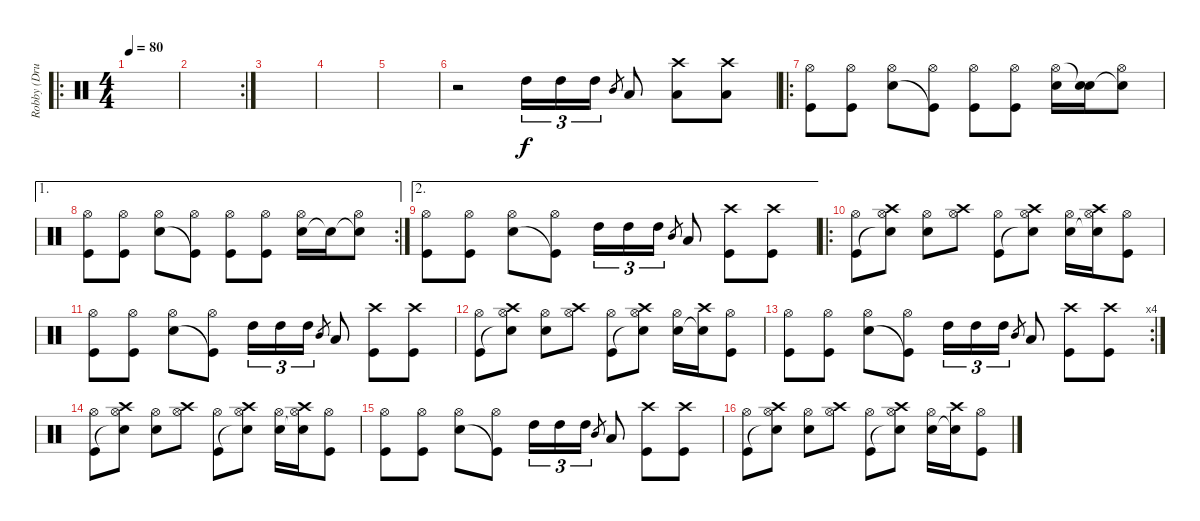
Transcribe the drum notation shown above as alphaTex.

\track ("Robby (Drums)" "Robby (Dru") {instrument percussion}
\staff {score}
\articulation defaults
\ro
\ts (4 4)
\tempo 80
\clef neutral
\ks c
|
\rc 2
|
|
|
|
r.2 "High Tom (hit)".16{tu (3 2)} "High Tom (hit)".16{tu (3 2)} "High Tom (hit)".16{tu (3 2)} "Mid Tom (hit)".8{gr} "Low Tom (hit)".8 ("Crash high (hit)" "Low Tom (hit)").8 ("Crash high (hit)" "Low Tom (hit)").8 |
\ro
("Kick (hit)" "Hi-Hat (open)").8 ("Kick (hit)" "Hi-Hat (open)").8 ("Snare (hit) 2" "Hi-Hat (open)").8 ("Kick (hit)"{t} "Hi-Hat (open)").8 ("Kick (hit)" "Hi-Hat (open)").8 ("Kick (hit)" "Hi-Hat (open)").8 ("Snare (hit) 2" "Hi-Hat (open)").16 ("Snare (hit) 2" "Snare (hit)"{t}).16 ("Snare (hit)"{t} "Hi-Hat (open)").8 |
\ae 1
\rc 2
("Kick (hit)" "Hi-Hat (open)").8 ("Kick (hit)" "Hi-Hat (open)").8 ("Snare (hit) 2" "Hi-Hat (open)").8 ("Kick (hit)"{t} "Hi-Hat (open)").8 ("Kick (hit)" "Hi-Hat (open)").8 ("Kick (hit)" "Hi-Hat (open)").8 ("Snare (hit) 2" "Hi-Hat (open)").16 "Snare (hit)"{t}.16 ("Snare (hit)"{t} "Hi-Hat (open)").8 |
\ae 2
("Kick (hit)" "Hi-Hat (open)").8 ("Kick (hit)" "Hi-Hat (open)").8 ("Snare (hit) 2" "Hi-Hat (open)").8 ("Kick (hit)"{t} "Hi-Hat (open)").8 "High Tom (hit)".16{tu (3 2)} "High Tom (hit)".16{tu (3 2)} "High Tom (hit)".16{tu (3 2)} "Mid Tom (hit)".8{gr} "Low Tom (hit)".8 ("Crash high (hit)" "Kick (hit)").8 ("Crash high (hit)" "Kick (hit)").8 |
\ro
("Kick (hit)" "Hi-Hat (open)").8 ("Snare (hit)"{t} "Hi-Hat (open)" "Crash high (hit)").8 ("Snare (hit) 2" "Hi-Hat (open)").8 ("Hi-Hat (open)" "Crash high (hit)").8 ("Kick (hit)" "Hi-Hat (open)").8 ("Snare (hit)"{t} "Hi-Hat (open)" "Crash high (hit)").8 ("Snare (hit) 2" "Hi-Hat (open)").16 ("Snare (hit)"{t} "Hi-Hat (open)" "Crash high (hit)").16 ("Kick (hit)" "Hi-Hat (open)").8 |
("Kick (hit)" "Hi-Hat (open)").8 ("Kick (hit)" "Hi-Hat (open)").8 ("Snare (hit) 2" "Hi-Hat (open)").8 ("Kick (hit)"{t} "Hi-Hat (open)").8 "High Tom (hit)".16{tu (3 2)} "High Tom (hit)".16{tu (3 2)} "High Tom (hit)".16{tu (3 2)} "Mid Tom (hit)".8{gr} "Low Tom (hit)".8 ("Crash high (hit)" "Kick (hit)").8 ("Crash high (hit)" "Kick (hit)").8 |
("Kick (hit)" "Hi-Hat (open)").8 ("Snare (hit)"{t} "Hi-Hat (open)" "Crash high (hit)").8 ("Snare (hit) 2" "Hi-Hat (open)").8 ("Hi-Hat (open)" "Crash high (hit)").8 ("Kick (hit)" "Hi-Hat (open)").8 ("Snare (hit)"{t} "Hi-Hat (open)" "Crash high (hit)").8 ("Snare (hit) 2" "Hi-Hat (open)").16 ("Snare (hit)"{t} "Crash high (hit)").16 ("Kick (hit)" "Hi-Hat (open)").8 |
\rc 4
("Kick (hit)" "Hi-Hat (open)").8 ("Kick (hit)" "Hi-Hat (open)").8 ("Snare (hit) 2" "Hi-Hat (open)").8 ("Kick (hit)"{t} "Hi-Hat (open)").8 "High Tom (hit)".16{tu (3 2)} "High Tom (hit)".16{tu (3 2)} "High Tom (hit)".16{tu (3 2)} "Mid Tom (hit)".8{gr} "Low Tom (hit)".8 ("Crash high (hit)" "Kick (hit)").8 ("Crash high (hit)" "Kick (hit)").8 |
("Kick (hit)" "Hi-Hat (open)").8 ("Snare (hit)"{t} "Hi-Hat (open)" "Crash high (hit)").8 ("Snare (hit) 2" "Hi-Hat (open)").8 ("Hi-Hat (open)" "Crash high (hit)").8 ("Kick (hit)" "Hi-Hat (open)").8 ("Snare (hit)"{t} "Hi-Hat (open)" "Crash high (hit)").8 ("Snare (hit) 2" "Hi-Hat (open)").16 ("Snare (hit)"{t} "Hi-Hat (open)" "Crash high (hit)").16 ("Kick (hit)" "Hi-Hat (open)").8 |
("Kick (hit)" "Hi-Hat (open)").8 ("Kick (hit)" "Hi-Hat (open)").8 ("Snare (hit) 2" "Hi-Hat (open)").8 ("Kick (hit)"{t} "Hi-Hat (open)").8 "High Tom (hit)".16{tu (3 2)} "High Tom (hit)".16{tu (3 2)} "High Tom (hit)".16{tu (3 2)} "Mid Tom (hit)".8{gr} "Low Tom (hit)".8 ("Crash high (hit)" "Kick (hit)").8 ("Crash high (hit)" "Kick (hit)").8 |
("Kick (hit)" "Hi-Hat (open)").8 ("Snare (hit)"{t} "Hi-Hat (open)" "Crash high (hit)").8 ("Snare (hit) 2" "Hi-Hat (open)").8 ("Hi-Hat (open)" "Crash high (hit)").8 ("Kick (hit)" "Hi-Hat (open)").8 ("Snare (hit)"{t} "Hi-Hat (open)" "Crash high (hit)").8 ("Snare (hit) 2" "Hi-Hat (open)").16 ("Snare (hit)"{t} "Crash high (hit)").16 ("Kick (hit)" "Hi-Hat (open)").8
